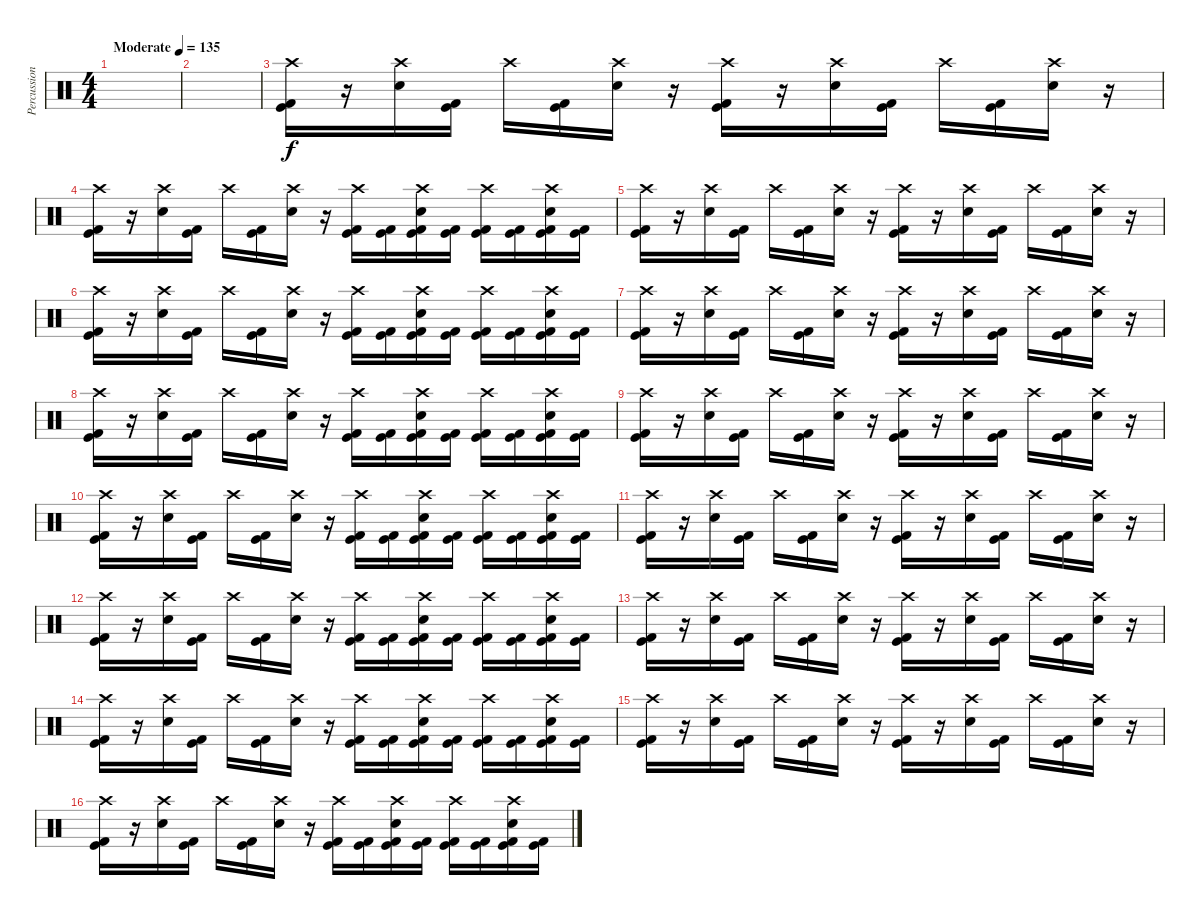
\track ("Percussion" "Percussion") {instrument percussion}
\staff {score}
\articulation defaults
\ts (4 4)
\tempo (135 "Moderate")
\clef neutral
\ks c
|
|
("Crash high (hit)" "Kick (hit)" "Kick (hit) 2").16 r.16 ("Crash high (hit)" "Electric Snare (hit)").16 ("Kick (hit) 2" "Kick (hit)").16 "Crash high (hit)".16 ("Kick (hit) 2" "Kick (hit)").16 ("Crash high (hit)" "Electric Snare (hit)").16 r.16 ("Crash high (hit)" "Kick (hit)" "Kick (hit) 2").16 r.16 ("Crash high (hit)" "Electric Snare (hit)").16 ("Kick (hit) 2" "Kick (hit)").16 "Crash high (hit)".16 ("Kick (hit) 2" "Kick (hit)").16 ("Crash high (hit)" "Electric Snare (hit)").16 r.16 |
("Crash high (hit)" "Kick (hit)" "Kick (hit) 2").16 r.16 ("Crash high (hit)" "Electric Snare (hit)").16 ("Kick (hit) 2" "Kick (hit)").16 "Crash high (hit)".16 ("Kick (hit) 2" "Kick (hit)").16 ("Crash high (hit)" "Electric Snare (hit)").16 r.16 ("Crash high (hit)" "Kick (hit) 2" "Kick (hit)").16 ("Kick (hit) 2" "Kick (hit)").16 ("Crash high (hit)" "Electric Snare (hit)" "Kick (hit) 2" "Kick (hit)").16 ("Kick (hit) 2" "Kick (hit)").16 ("Crash high (hit)" "Kick (hit) 2" "Kick (hit)").16 ("Kick (hit) 2" "Kick (hit)").16 ("Crash high (hit)" "Electric Snare (hit)" "Kick (hit) 2" "Kick (hit)").16 ("Kick (hit) 2" "Kick (hit)").16 |
("Crash high (hit)" "Kick (hit)" "Kick (hit) 2").16 r.16 ("Crash high (hit)" "Electric Snare (hit)").16 ("Kick (hit) 2" "Kick (hit)").16 "Crash high (hit)".16 ("Kick (hit) 2" "Kick (hit)").16 ("Crash high (hit)" "Electric Snare (hit)").16 r.16 ("Crash high (hit)" "Kick (hit)" "Kick (hit) 2").16 r.16 ("Crash high (hit)" "Electric Snare (hit)").16 ("Kick (hit) 2" "Kick (hit)").16 "Crash high (hit)".16 ("Kick (hit) 2" "Kick (hit)").16 ("Crash high (hit)" "Electric Snare (hit)").16 r.16 |
("Crash high (hit)" "Kick (hit)" "Kick (hit) 2").16 r.16 ("Crash high (hit)" "Electric Snare (hit)").16 ("Kick (hit) 2" "Kick (hit)").16 "Crash high (hit)".16 ("Kick (hit) 2" "Kick (hit)").16 ("Crash high (hit)" "Electric Snare (hit)").16 r.16 ("Crash high (hit)" "Kick (hit) 2" "Kick (hit)").16 ("Kick (hit) 2" "Kick (hit)").16 ("Crash high (hit)" "Electric Snare (hit)" "Kick (hit) 2" "Kick (hit)").16 ("Kick (hit) 2" "Kick (hit)").16 ("Crash high (hit)" "Kick (hit) 2" "Kick (hit)").16 ("Kick (hit) 2" "Kick (hit)").16 ("Crash high (hit)" "Electric Snare (hit)" "Kick (hit) 2" "Kick (hit)").16 ("Kick (hit) 2" "Kick (hit)").16 |
("Crash high (hit)" "Kick (hit)" "Kick (hit) 2").16 r.16 ("Crash high (hit)" "Electric Snare (hit)").16 ("Kick (hit) 2" "Kick (hit)").16 "Crash high (hit)".16 ("Kick (hit) 2" "Kick (hit)").16 ("Crash high (hit)" "Electric Snare (hit)").16 r.16 ("Crash high (hit)" "Kick (hit)" "Kick (hit) 2").16 r.16 ("Crash high (hit)" "Electric Snare (hit)").16 ("Kick (hit) 2" "Kick (hit)").16 "Crash high (hit)".16 ("Kick (hit) 2" "Kick (hit)").16 ("Crash high (hit)" "Electric Snare (hit)").16 r.16 |
("Crash high (hit)" "Kick (hit)" "Kick (hit) 2").16 r.16 ("Crash high (hit)" "Electric Snare (hit)").16 ("Kick (hit) 2" "Kick (hit)").16 "Crash high (hit)".16 ("Kick (hit) 2" "Kick (hit)").16 ("Crash high (hit)" "Electric Snare (hit)").16 r.16 ("Crash high (hit)" "Kick (hit) 2" "Kick (hit)").16 ("Kick (hit) 2" "Kick (hit)").16 ("Crash high (hit)" "Electric Snare (hit)" "Kick (hit) 2" "Kick (hit)").16 ("Kick (hit) 2" "Kick (hit)").16 ("Crash high (hit)" "Kick (hit) 2" "Kick (hit)").16 ("Kick (hit) 2" "Kick (hit)").16 ("Crash high (hit)" "Electric Snare (hit)" "Kick (hit) 2" "Kick (hit)").16 ("Kick (hit) 2" "Kick (hit)").16 |
("Crash high (hit)" "Kick (hit)" "Kick (hit) 2").16 r.16 ("Crash high (hit)" "Electric Snare (hit)").16 ("Kick (hit) 2" "Kick (hit)").16 "Crash high (hit)".16 ("Kick (hit) 2" "Kick (hit)").16 ("Crash high (hit)" "Electric Snare (hit)").16 r.16 ("Crash high (hit)" "Kick (hit)" "Kick (hit) 2").16 r.16 ("Crash high (hit)" "Electric Snare (hit)").16 ("Kick (hit) 2" "Kick (hit)").16 "Crash high (hit)".16 ("Kick (hit) 2" "Kick (hit)").16 ("Crash high (hit)" "Electric Snare (hit)").16 r.16 |
("Crash high (hit)" "Kick (hit)" "Kick (hit) 2").16 r.16 ("Crash high (hit)" "Electric Snare (hit)").16 ("Kick (hit) 2" "Kick (hit)").16 "Crash high (hit)".16 ("Kick (hit) 2" "Kick (hit)").16 ("Crash high (hit)" "Electric Snare (hit)").16 r.16 ("Crash high (hit)" "Kick (hit) 2" "Kick (hit)").16 ("Kick (hit) 2" "Kick (hit)").16 ("Crash high (hit)" "Electric Snare (hit)" "Kick (hit) 2" "Kick (hit)").16 ("Kick (hit) 2" "Kick (hit)").16 ("Crash high (hit)" "Kick (hit) 2" "Kick (hit)").16 ("Kick (hit) 2" "Kick (hit)").16 ("Crash high (hit)" "Electric Snare (hit)" "Kick (hit) 2" "Kick (hit)").16 ("Kick (hit) 2" "Kick (hit)").16 |
("Crash high (hit)" "Kick (hit)" "Kick (hit) 2").16 r.16 ("Crash high (hit)" "Electric Snare (hit)").16 ("Kick (hit) 2" "Kick (hit)").16 "Crash high (hit)".16 ("Kick (hit) 2" "Kick (hit)").16 ("Crash high (hit)" "Electric Snare (hit)").16 r.16 ("Crash high (hit)" "Kick (hit)" "Kick (hit) 2").16 r.16 ("Crash high (hit)" "Electric Snare (hit)").16 ("Kick (hit) 2" "Kick (hit)").16 "Crash high (hit)".16 ("Kick (hit) 2" "Kick (hit)").16 ("Crash high (hit)" "Electric Snare (hit)").16 r.16 |
("Crash high (hit)" "Kick (hit)" "Kick (hit) 2").16 r.16 ("Crash high (hit)" "Electric Snare (hit)").16 ("Kick (hit) 2" "Kick (hit)").16 "Crash high (hit)".16 ("Kick (hit) 2" "Kick (hit)").16 ("Crash high (hit)" "Electric Snare (hit)").16 r.16 ("Crash high (hit)" "Kick (hit) 2" "Kick (hit)").16 ("Kick (hit) 2" "Kick (hit)").16 ("Crash high (hit)" "Electric Snare (hit)" "Kick (hit) 2" "Kick (hit)").16 ("Kick (hit) 2" "Kick (hit)").16 ("Crash high (hit)" "Kick (hit) 2" "Kick (hit)").16 ("Kick (hit) 2" "Kick (hit)").16 ("Crash high (hit)" "Electric Snare (hit)" "Kick (hit) 2" "Kick (hit)").16 ("Kick (hit) 2" "Kick (hit)").16 |
("Crash high (hit)" "Kick (hit)" "Kick (hit) 2").16 r.16 ("Crash high (hit)" "Electric Snare (hit)").16 ("Kick (hit) 2" "Kick (hit)").16 "Crash high (hit)".16 ("Kick (hit) 2" "Kick (hit)").16 ("Crash high (hit)" "Electric Snare (hit)").16 r.16 ("Crash high (hit)" "Kick (hit)" "Kick (hit) 2").16 r.16 ("Crash high (hit)" "Electric Snare (hit)").16 ("Kick (hit) 2" "Kick (hit)").16 "Crash high (hit)".16 ("Kick (hit) 2" "Kick (hit)").16 ("Crash high (hit)" "Electric Snare (hit)").16 r.16 |
("Crash high (hit)" "Kick (hit)" "Kick (hit) 2").16 r.16 ("Crash high (hit)" "Electric Snare (hit)").16 ("Kick (hit) 2" "Kick (hit)").16 "Crash high (hit)".16 ("Kick (hit) 2" "Kick (hit)").16 ("Crash high (hit)" "Electric Snare (hit)").16 r.16 ("Crash high (hit)" "Kick (hit) 2" "Kick (hit)").16 ("Kick (hit) 2" "Kick (hit)").16 ("Crash high (hit)" "Electric Snare (hit)" "Kick (hit) 2" "Kick (hit)").16 ("Kick (hit) 2" "Kick (hit)").16 ("Crash high (hit)" "Kick (hit) 2" "Kick (hit)").16 ("Kick (hit) 2" "Kick (hit)").16 ("Crash high (hit)" "Electric Snare (hit)" "Kick (hit) 2" "Kick (hit)").16 ("Kick (hit) 2" "Kick (hit)").16 |
("Crash high (hit)" "Kick (hit)" "Kick (hit) 2").16 r.16 ("Crash high (hit)" "Electric Snare (hit)").16 ("Kick (hit) 2" "Kick (hit)").16 "Crash high (hit)".16 ("Kick (hit) 2" "Kick (hit)").16 ("Crash high (hit)" "Electric Snare (hit)").16 r.16 ("Crash high (hit)" "Kick (hit)" "Kick (hit) 2").16 r.16 ("Crash high (hit)" "Electric Snare (hit)").16 ("Kick (hit) 2" "Kick (hit)").16 "Crash high (hit)".16 ("Kick (hit) 2" "Kick (hit)").16 ("Crash high (hit)" "Electric Snare (hit)").16 r.16 |
("Crash high (hit)" "Kick (hit)" "Kick (hit) 2").16 r.16 ("Crash high (hit)" "Electric Snare (hit)").16 ("Kick (hit) 2" "Kick (hit)").16 "Crash high (hit)".16 ("Kick (hit) 2" "Kick (hit)").16 ("Crash high (hit)" "Electric Snare (hit)").16 r.16 ("Crash high (hit)" "Kick (hit) 2" "Kick (hit)").16 ("Kick (hit) 2" "Kick (hit)").16 ("Crash high (hit)" "Electric Snare (hit)" "Kick (hit) 2" "Kick (hit)").16 ("Kick (hit) 2" "Kick (hit)").16 ("Crash high (hit)" "Kick (hit) 2" "Kick (hit)").16 ("Kick (hit) 2" "Kick (hit)").16 ("Crash high (hit)" "Electric Snare (hit)" "Kick (hit) 2" "Kick (hit)").16 ("Kick (hit) 2" "Kick (hit)").16
